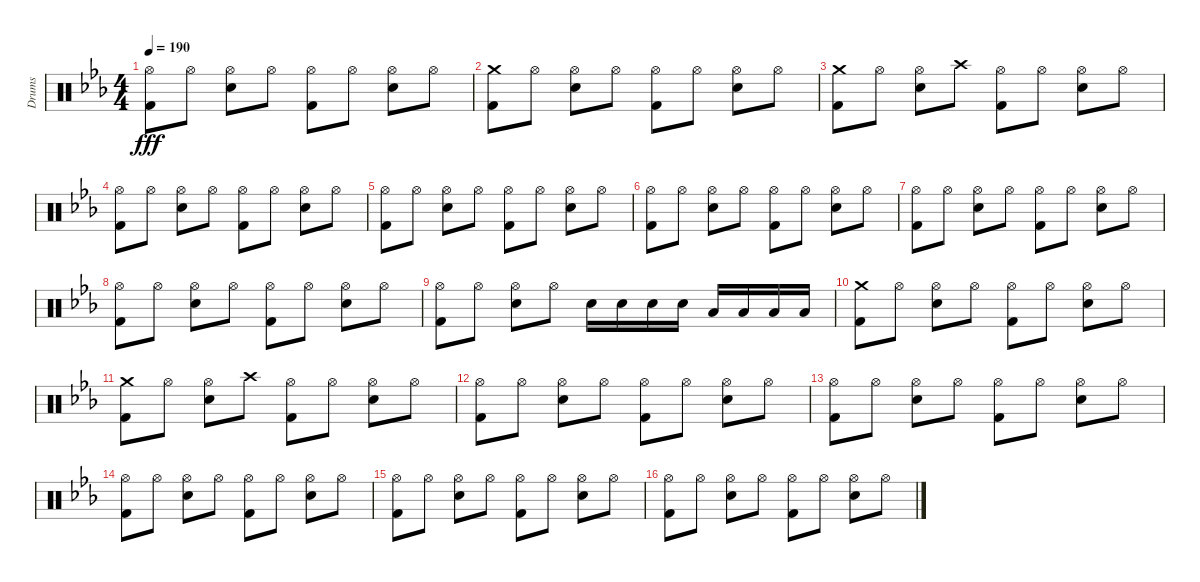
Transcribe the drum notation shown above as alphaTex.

\track ("Drums" "Drums") {instrument percussion}
\staff {score}
\articulation defaults
\ts (4 4)
\tempo 190
\clef neutral
\ks eb
("Hi-Hat (open)" "Kick (hit) 2").8{dy fff} "Hi-Hat (open)".8 ("Hi-Hat (open)" "Electric Snare (hit)").8 "Hi-Hat (open)".8 ("Hi-Hat (open)" "Kick (hit) 2").8 "Hi-Hat (open)".8 ("Hi-Hat (open)" "Electric Snare (hit)").8 "Hi-Hat (open)".8 |
("Crash medium (hit)" "Kick (hit) 2").8 "Hi-Hat (open)".8 ("Hi-Hat (open)" "Electric Snare (hit)").8 "Hi-Hat (open)".8 ("Hi-Hat (open)" "Kick (hit) 2").8 "Hi-Hat (open)".8 ("Hi-Hat (open)" "Electric Snare (hit)").8 "Hi-Hat (open)".8 |
("Crash medium (hit)" "Kick (hit) 2").8 "Hi-Hat (open)".8 ("Hi-Hat (open)" "Electric Snare (hit)").8 "Crash high (hit)".8 ("Hi-Hat (open)" "Kick (hit) 2").8 "Hi-Hat (open)".8 ("Hi-Hat (open)" "Electric Snare (hit)").8 "Hi-Hat (open)".8 |
("Hi-Hat (open)" "Kick (hit) 2").8 "Hi-Hat (open)".8 ("Hi-Hat (open)" "Electric Snare (hit)").8 "Hi-Hat (open)".8 ("Hi-Hat (open)" "Kick (hit) 2").8 "Hi-Hat (open)".8 ("Hi-Hat (open)" "Electric Snare (hit)").8 "Hi-Hat (open)".8 |
("Hi-Hat (open)" "Kick (hit) 2").8 "Hi-Hat (open)".8 ("Hi-Hat (open)" "Electric Snare (hit)").8 "Hi-Hat (open)".8 ("Hi-Hat (open)" "Kick (hit) 2").8 "Hi-Hat (open)".8 ("Hi-Hat (open)" "Electric Snare (hit)").8 "Hi-Hat (open)".8 |
("Hi-Hat (open)" "Kick (hit) 2").8 "Hi-Hat (open)".8 ("Hi-Hat (open)" "Electric Snare (hit)").8 "Hi-Hat (open)".8 ("Hi-Hat (open)" "Kick (hit) 2").8 "Hi-Hat (open)".8 ("Hi-Hat (open)" "Electric Snare (hit)").8 "Hi-Hat (open)".8 |
("Hi-Hat (open)" "Kick (hit) 2").8 "Hi-Hat (open)".8 ("Hi-Hat (open)" "Electric Snare (hit)").8 "Hi-Hat (open)".8 ("Hi-Hat (open)" "Kick (hit) 2").8 "Hi-Hat (open)".8 ("Hi-Hat (open)" "Electric Snare (hit)").8 "Hi-Hat (open)".8 |
("Hi-Hat (open)" "Kick (hit) 2").8 "Hi-Hat (open)".8 ("Hi-Hat (open)" "Electric Snare (hit)").8 "Hi-Hat (open)".8 ("Hi-Hat (open)" "Kick (hit) 2").8 "Hi-Hat (open)".8 ("Hi-Hat (open)" "Electric Snare (hit)").8 "Hi-Hat (open)".8 |
("Hi-Hat (open)" "Kick (hit) 2").8 "Hi-Hat (open)".8 ("Hi-Hat (open)" "Electric Snare (hit)").8 "Hi-Hat (open)".8 "Electric Snare (hit)".16 "Electric Snare (hit)".16 "Electric Snare (hit)".16 "Electric Snare (hit)".16 "Low Tom (hit)".16 "Low Tom (hit)".16 "Low Tom (hit)".16 "Low Tom (hit)".16 |
("Crash medium (hit)" "Kick (hit) 2").8 "Hi-Hat (open)".8 ("Hi-Hat (open)" "Electric Snare (hit)").8 "Hi-Hat (open)".8 ("Hi-Hat (open)" "Kick (hit) 2").8 "Hi-Hat (open)".8 ("Hi-Hat (open)" "Electric Snare (hit)").8 "Hi-Hat (open)".8 |
("Crash medium (hit)" "Kick (hit) 2").8 "Hi-Hat (open)".8 ("Hi-Hat (open)" "Electric Snare (hit)").8 "Crash high (hit)".8 ("Hi-Hat (open)" "Kick (hit) 2").8 "Hi-Hat (open)".8 ("Hi-Hat (open)" "Electric Snare (hit)").8 "Hi-Hat (open)".8 |
("Hi-Hat (open)" "Kick (hit) 2").8 "Hi-Hat (open)".8 ("Hi-Hat (open)" "Electric Snare (hit)").8 "Hi-Hat (open)".8 ("Hi-Hat (open)" "Kick (hit) 2").8 "Hi-Hat (open)".8 ("Hi-Hat (open)" "Electric Snare (hit)").8 "Hi-Hat (open)".8 |
("Hi-Hat (open)" "Kick (hit) 2").8 "Hi-Hat (open)".8 ("Hi-Hat (open)" "Electric Snare (hit)").8 "Hi-Hat (open)".8 ("Hi-Hat (open)" "Kick (hit) 2").8 "Hi-Hat (open)".8 ("Hi-Hat (open)" "Electric Snare (hit)").8 "Hi-Hat (open)".8 |
("Hi-Hat (open)" "Kick (hit) 2").8 "Hi-Hat (open)".8 ("Hi-Hat (open)" "Electric Snare (hit)").8 "Hi-Hat (open)".8 ("Hi-Hat (open)" "Kick (hit) 2").8 "Hi-Hat (open)".8 ("Hi-Hat (open)" "Electric Snare (hit)").8 "Hi-Hat (open)".8 |
("Hi-Hat (open)" "Kick (hit) 2").8 "Hi-Hat (open)".8 ("Hi-Hat (open)" "Electric Snare (hit)").8 "Hi-Hat (open)".8 ("Hi-Hat (open)" "Kick (hit) 2").8 "Hi-Hat (open)".8 ("Hi-Hat (open)" "Electric Snare (hit)").8 "Hi-Hat (open)".8 |
("Hi-Hat (open)" "Kick (hit) 2").8 "Hi-Hat (open)".8 ("Hi-Hat (open)" "Electric Snare (hit)").8 "Hi-Hat (open)".8 ("Hi-Hat (open)" "Kick (hit) 2").8 "Hi-Hat (open)".8 ("Hi-Hat (open)" "Electric Snare (hit)").8 "Hi-Hat (open)".8
